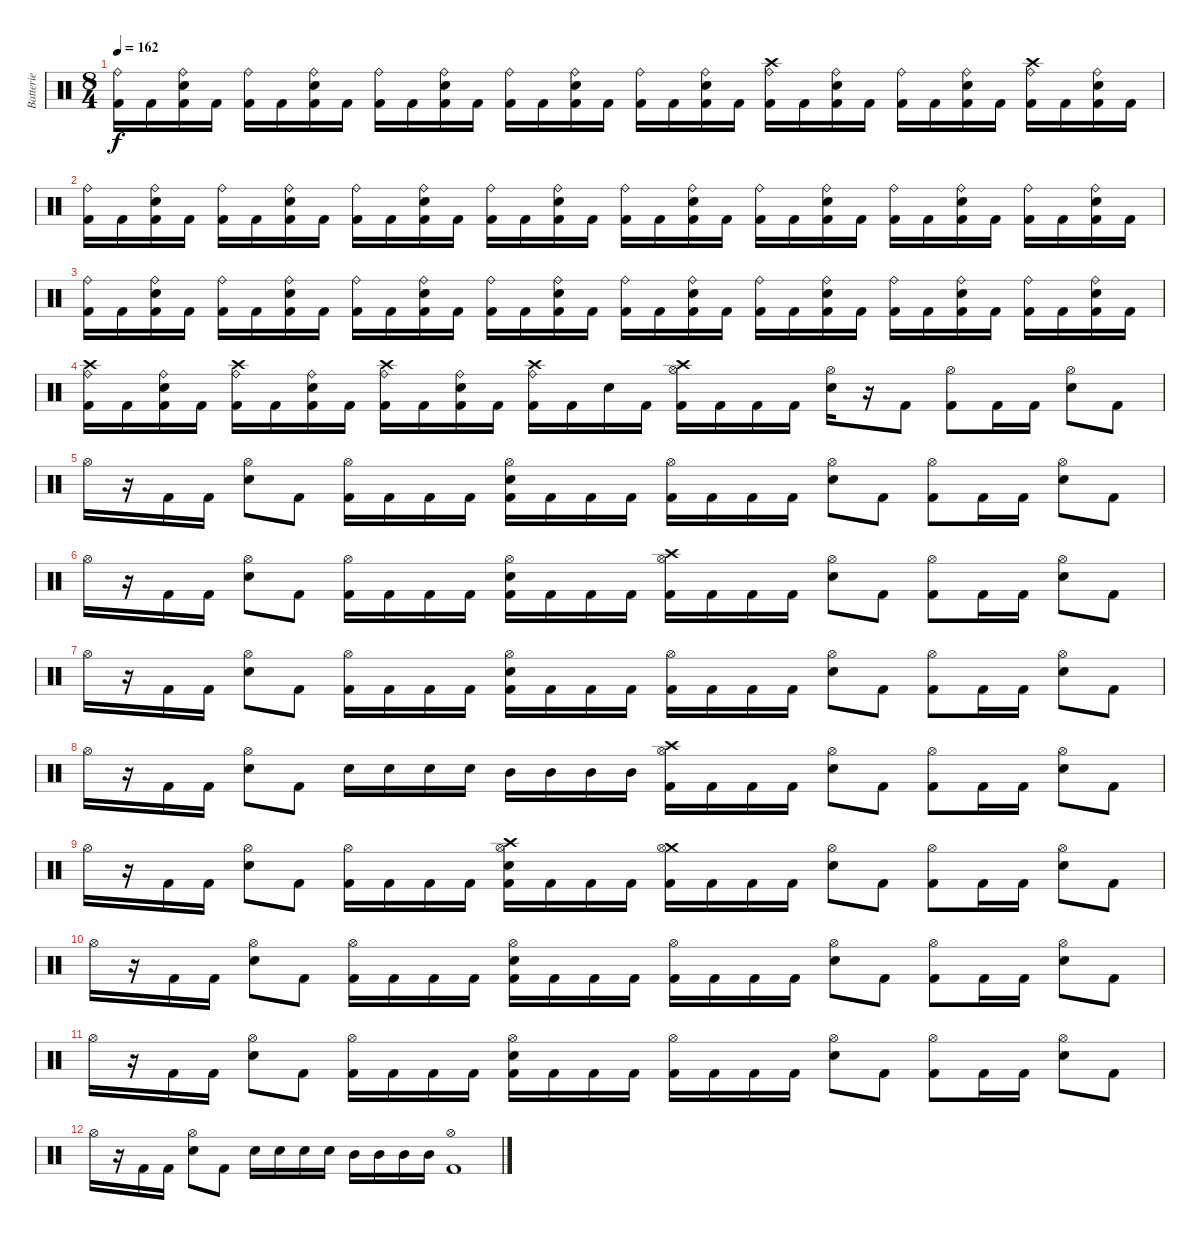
\track ("Batterie" "Batterie") {instrument percussion}
\staff {score}
\articulation defaults
\ts (8 4)
\tempo 162
\clef neutral
\ks c
("Ride (bell)" "Kick (hit) 2").16{dy f} "Kick (hit) 2".16 ("Ride (bell)" "Electric Snare (hit)" "Kick (hit) 2").16 "Kick (hit) 2".16 ("Ride (bell)" "Kick (hit) 2").16 "Kick (hit) 2".16 ("Ride (bell)" "Electric Snare (hit)" "Kick (hit) 2").16 "Kick (hit) 2".16 ("Ride (bell)" "Kick (hit) 2").16 "Kick (hit) 2".16 ("Ride (bell)" "Electric Snare (hit)" "Kick (hit) 2").16 "Kick (hit) 2".16 ("Ride (bell)" "Kick (hit) 2").16 "Kick (hit) 2".16 ("Ride (bell)" "Electric Snare (hit)" "Kick (hit) 2").16 "Kick (hit) 2".16 ("Ride (bell)" "Kick (hit) 2").16 "Kick (hit) 2".16 ("Ride (bell)" "Electric Snare (hit)" "Kick (hit) 2").16 "Kick (hit) 2".16 ("Crash high (hit)" "Ride (bell)" "Kick (hit) 2").16 "Kick (hit) 2".16 ("Ride (bell)" "Electric Snare (hit)" "Kick (hit) 2").16 "Kick (hit) 2".16 ("Ride (bell)" "Kick (hit) 2").16 "Kick (hit) 2".16 ("Ride (bell)" "Electric Snare (hit)" "Kick (hit) 2").16 "Kick (hit) 2".16 ("Crash high (hit)" "Ride (bell)" "Kick (hit) 2").16 "Kick (hit) 2".16 ("Ride (bell)" "Electric Snare (hit)" "Kick (hit) 2").16 "Kick (hit) 2".16 |
("Ride (bell)" "Kick (hit) 2").16 "Kick (hit) 2".16 ("Ride (bell)" "Electric Snare (hit)" "Kick (hit) 2").16 "Kick (hit) 2".16 ("Ride (bell)" "Kick (hit) 2").16 "Kick (hit) 2".16 ("Ride (bell)" "Electric Snare (hit)" "Kick (hit) 2").16 "Kick (hit) 2".16 ("Ride (bell)" "Kick (hit) 2").16 "Kick (hit) 2".16 ("Ride (bell)" "Electric Snare (hit)" "Kick (hit) 2").16 "Kick (hit) 2".16 ("Ride (bell)" "Kick (hit) 2").16 "Kick (hit) 2".16 ("Ride (bell)" "Electric Snare (hit)" "Kick (hit) 2").16 "Kick (hit) 2".16 ("Ride (bell)" "Kick (hit) 2").16 "Kick (hit) 2".16 ("Ride (bell)" "Electric Snare (hit)" "Kick (hit) 2").16 "Kick (hit) 2".16 ("Ride (bell)" "Kick (hit) 2").16 "Kick (hit) 2".16 ("Ride (bell)" "Electric Snare (hit)" "Kick (hit) 2").16 "Kick (hit) 2".16 ("Ride (bell)" "Kick (hit) 2").16 "Kick (hit) 2".16 ("Ride (bell)" "Electric Snare (hit)" "Kick (hit) 2").16 "Kick (hit) 2".16 ("Ride (bell)" "Kick (hit) 2").16 "Kick (hit) 2".16 ("Ride (bell)" "Electric Snare (hit)" "Kick (hit) 2").16 "Kick (hit) 2".16 |
("Ride (bell)" "Kick (hit) 2").16 "Kick (hit) 2".16 ("Ride (bell)" "Electric Snare (hit)" "Kick (hit) 2").16 "Kick (hit) 2".16 ("Ride (bell)" "Kick (hit) 2").16 "Kick (hit) 2".16 ("Ride (bell)" "Electric Snare (hit)" "Kick (hit) 2").16 "Kick (hit) 2".16 ("Ride (bell)" "Kick (hit) 2").16 "Kick (hit) 2".16 ("Ride (bell)" "Electric Snare (hit)" "Kick (hit) 2").16 "Kick (hit) 2".16 ("Ride (bell)" "Kick (hit) 2").16 "Kick (hit) 2".16 ("Ride (bell)" "Electric Snare (hit)" "Kick (hit) 2").16 "Kick (hit) 2".16 ("Ride (bell)" "Kick (hit) 2").16 "Kick (hit) 2".16 ("Ride (bell)" "Electric Snare (hit)" "Kick (hit) 2").16 "Kick (hit) 2".16 ("Ride (bell)" "Kick (hit) 2").16 "Kick (hit) 2".16 ("Ride (bell)" "Electric Snare (hit)" "Kick (hit) 2").16 "Kick (hit) 2".16 ("Ride (bell)" "Kick (hit) 2").16 "Kick (hit) 2".16 ("Ride (bell)" "Electric Snare (hit)" "Kick (hit) 2").16 "Kick (hit) 2".16 ("Ride (bell)" "Kick (hit) 2").16 "Kick (hit) 2".16 ("Ride (bell)" "Electric Snare (hit)" "Kick (hit) 2").16 "Kick (hit) 2".16 |
("Crash high (hit)" "Ride (bell)" "Kick (hit) 2").16 "Kick (hit) 2".16 ("Ride (bell)" "Electric Snare (hit)" "Kick (hit) 2").16 "Kick (hit) 2".16 ("Crash high (hit)" "Ride (bell)" "Kick (hit) 2").16 "Kick (hit) 2".16 ("Ride (bell)" "Electric Snare (hit)" "Kick (hit) 2").16 "Kick (hit) 2".16 ("Crash high (hit)" "Ride (bell)" "Kick (hit) 2").16 "Kick (hit) 2".16 ("Ride (bell)" "Electric Snare (hit)" "Kick (hit) 2").16 "Kick (hit) 2".16 ("Crash high (hit)" "Ride (bell)" "Kick (hit) 2").16 "Kick (hit) 2".16 "Electric Snare (hit)".16 "Kick (hit) 2".16 ("Crash high (hit)" "Hi-Hat (open)" "Kick (hit) 2").16 "Kick (hit) 2".16 "Kick (hit) 2".16 "Kick (hit) 2".16 ("Hi-Hat (open)" "Electric Snare (hit)").16 r.16 "Kick (hit) 2".8 ("Hi-Hat (open)" "Kick (hit) 2").8 "Kick (hit) 2".16 "Kick (hit) 2".16 ("Hi-Hat (open)" "Electric Snare (hit)").8 "Kick (hit) 2".8 |
"Hi-Hat (open)".16 r.16 "Kick (hit) 2".16 "Kick (hit) 2".16 ("Hi-Hat (open)" "Electric Snare (hit)").8 "Kick (hit) 2".8 ("Hi-Hat (open)" "Kick (hit) 2").16 "Kick (hit) 2".16 "Kick (hit) 2".16 "Kick (hit) 2".16 ("Hi-Hat (open)" "Electric Snare (hit)" "Kick (hit) 2").16 "Kick (hit) 2".16 "Kick (hit) 2".16 "Kick (hit) 2".16 ("Hi-Hat (open)" "Kick (hit) 2").16 "Kick (hit) 2".16 "Kick (hit) 2".16 "Kick (hit) 2".16 ("Hi-Hat (open)" "Electric Snare (hit)").8 "Kick (hit) 2".8 ("Hi-Hat (open)" "Kick (hit) 2").8 "Kick (hit) 2".16 "Kick (hit) 2".16 ("Hi-Hat (open)" "Electric Snare (hit)").8 "Kick (hit) 2".8 |
"Hi-Hat (open)".16 r.16 "Kick (hit) 2".16 "Kick (hit) 2".16 ("Hi-Hat (open)" "Electric Snare (hit)").8 "Kick (hit) 2".8 ("Hi-Hat (open)" "Kick (hit) 2").16 "Kick (hit) 2".16 "Kick (hit) 2".16 "Kick (hit) 2".16 ("Hi-Hat (open)" "Electric Snare (hit)" "Kick (hit) 2").16 "Kick (hit) 2".16 "Kick (hit) 2".16 "Kick (hit) 2".16 ("Crash high (hit)" "Hi-Hat (open)" "Kick (hit) 2").16 "Kick (hit) 2".16 "Kick (hit) 2".16 "Kick (hit) 2".16 ("Hi-Hat (open)" "Electric Snare (hit)").8 "Kick (hit) 2".8 ("Hi-Hat (open)" "Kick (hit) 2").8 "Kick (hit) 2".16 "Kick (hit) 2".16 ("Hi-Hat (open)" "Electric Snare (hit)").8 "Kick (hit) 2".8 |
"Hi-Hat (open)".16 r.16 "Kick (hit) 2".16 "Kick (hit) 2".16 ("Hi-Hat (open)" "Electric Snare (hit)").8 "Kick (hit) 2".8 ("Hi-Hat (open)" "Kick (hit) 2").16 "Kick (hit) 2".16 "Kick (hit) 2".16 "Kick (hit) 2".16 ("Hi-Hat (open)" "Electric Snare (hit)" "Kick (hit) 2").16 "Kick (hit) 2".16 "Kick (hit) 2".16 "Kick (hit) 2".16 ("Hi-Hat (open)" "Kick (hit) 2").16 "Kick (hit) 2".16 "Kick (hit) 2".16 "Kick (hit) 2".16 ("Hi-Hat (open)" "Electric Snare (hit)").8 "Kick (hit) 2".8 ("Hi-Hat (open)" "Kick (hit) 2").8 "Kick (hit) 2".16 "Kick (hit) 2".16 ("Hi-Hat (open)" "Electric Snare (hit)").8 "Kick (hit) 2".8 |
"Hi-Hat (open)".16 r.16 "Kick (hit) 2".16 "Kick (hit) 2".16 ("Hi-Hat (open)" "Electric Snare (hit)").8 "Kick (hit) 2".8 "Electric Snare (hit)".16 "Electric Snare (hit)".16 "Electric Snare (hit)".16 "Electric Snare (hit)".16 "Mid Tom (hit)".16 "Mid Tom (hit)".16 "Mid Tom (hit)".16 "Mid Tom (hit)".16 ("Crash high (hit)" "Hi-Hat (open)" "Kick (hit) 2").16 "Kick (hit) 2".16 "Kick (hit) 2".16 "Kick (hit) 2".16 ("Hi-Hat (open)" "Electric Snare (hit)").8 "Kick (hit) 2".8 ("Hi-Hat (open)" "Kick (hit) 2").8 "Kick (hit) 2".16 "Kick (hit) 2".16 ("Hi-Hat (open)" "Electric Snare (hit)").8 "Kick (hit) 2".8 |
"Hi-Hat (open)".16 r.16 "Kick (hit) 2".16 "Kick (hit) 2".16 ("Hi-Hat (open)" "Electric Snare (hit)").8 "Kick (hit) 2".8 ("Hi-Hat (open)" "Kick (hit) 2").16 "Kick (hit) 2".16 "Kick (hit) 2".16 "Kick (hit) 2".16 ("Crash high (hit)" "Hi-Hat (open)" "Electric Snare (hit)" "Kick (hit) 2").16 "Kick (hit) 2".16 "Kick (hit) 2".16 "Kick (hit) 2".16 ("Crash medium (hit)" "Hi-Hat (open)" "Kick (hit) 2").16 "Kick (hit) 2".16 "Kick (hit) 2".16 "Kick (hit) 2".16 ("Hi-Hat (open)" "Electric Snare (hit)").8 "Kick (hit) 2".8 ("Hi-Hat (open)" "Kick (hit) 2").8 "Kick (hit) 2".16 "Kick (hit) 2".16 ("Hi-Hat (open)" "Electric Snare (hit)").8 "Kick (hit) 2".8 |
"Hi-Hat (open)".16 r.16 "Kick (hit) 2".16 "Kick (hit) 2".16 ("Hi-Hat (open)" "Electric Snare (hit)").8 "Kick (hit) 2".8 ("Hi-Hat (open)" "Kick (hit) 2").16 "Kick (hit) 2".16 "Kick (hit) 2".16 "Kick (hit) 2".16 ("Hi-Hat (open)" "Electric Snare (hit)" "Kick (hit) 2").16 "Kick (hit) 2".16 "Kick (hit) 2".16 "Kick (hit) 2".16 ("Hi-Hat (open)" "Kick (hit) 2").16 "Kick (hit) 2".16 "Kick (hit) 2".16 "Kick (hit) 2".16 ("Hi-Hat (open)" "Electric Snare (hit)").8 "Kick (hit) 2".8 ("Hi-Hat (open)" "Kick (hit) 2").8 "Kick (hit) 2".16 "Kick (hit) 2".16 ("Hi-Hat (open)" "Electric Snare (hit)").8 "Kick (hit) 2".8 |
"Hi-Hat (open)".16 r.16 "Kick (hit) 2".16 "Kick (hit) 2".16 ("Hi-Hat (open)" "Electric Snare (hit)").8 "Kick (hit) 2".8 ("Hi-Hat (open)" "Kick (hit) 2").16 "Kick (hit) 2".16 "Kick (hit) 2".16 "Kick (hit) 2".16 ("Hi-Hat (open)" "Electric Snare (hit)" "Kick (hit) 2").16 "Kick (hit) 2".16 "Kick (hit) 2".16 "Kick (hit) 2".16 ("Hi-Hat (open)" "Kick (hit) 2").16 "Kick (hit) 2".16 "Kick (hit) 2".16 "Kick (hit) 2".16 ("Hi-Hat (open)" "Electric Snare (hit)").8 "Kick (hit) 2".8 ("Hi-Hat (open)" "Kick (hit) 2").8 "Kick (hit) 2".16 "Kick (hit) 2".16 ("Hi-Hat (open)" "Electric Snare (hit)").8 "Kick (hit) 2".8 |
"Hi-Hat (open)".16 r.16 "Kick (hit) 2".16 "Kick (hit) 2".16 ("Hi-Hat (open)" "Electric Snare (hit)").8 "Kick (hit) 2".8 "Electric Snare (hit)".16 "Electric Snare (hit)".16 "Electric Snare (hit)".16 "Electric Snare (hit)".16 "Mid Tom (hit)".16 "Mid Tom (hit)".16 "Mid Tom (hit)".16 "Mid Tom (hit)".16 ("Hi-Hat (open)" "Kick (hit) 2").1
